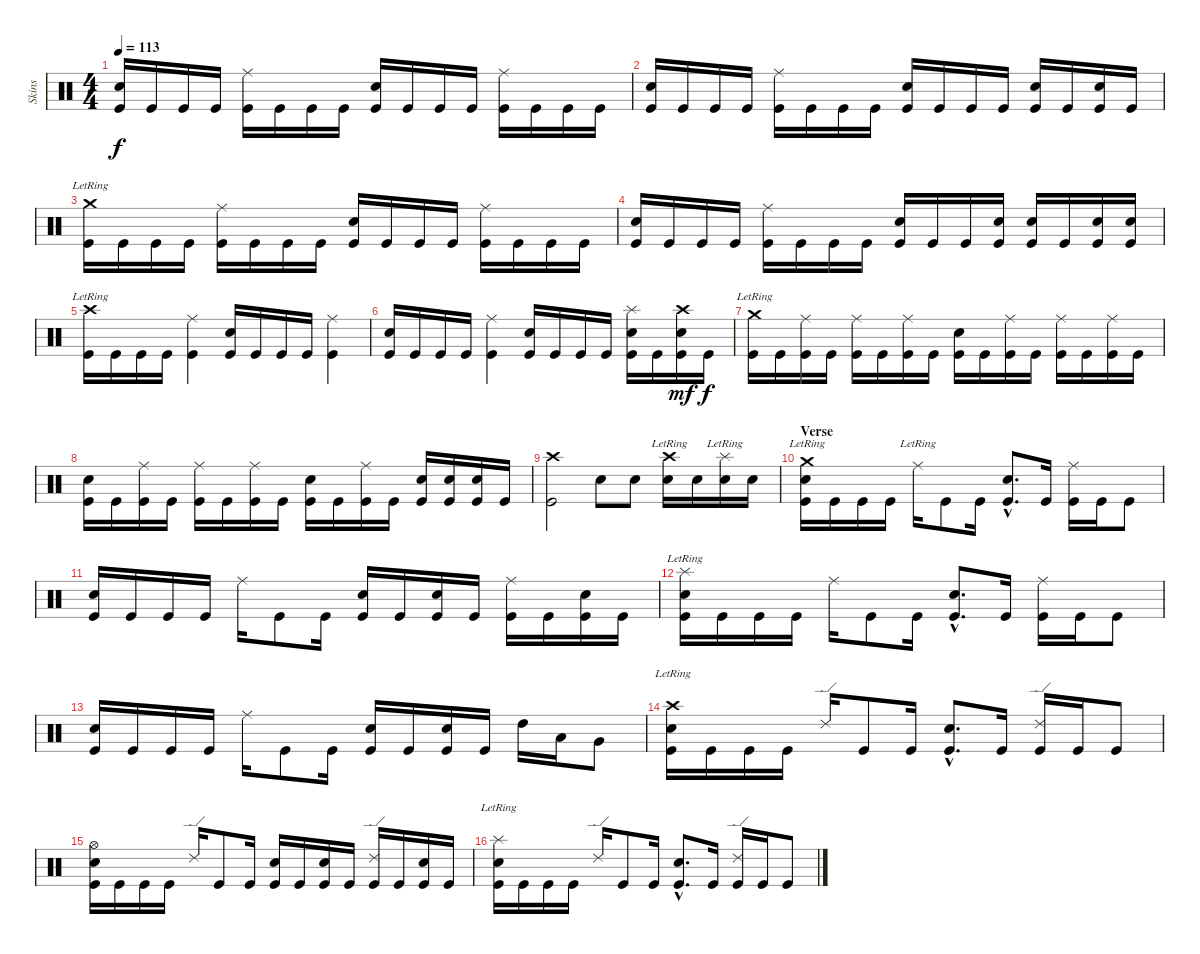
\track ("Skins" "Skins") {instrument percussion}
\staff {score}
\articulation defaults
\ts (4 4)
\tempo 113
\clef neutral
\ks c
("Electric Snare (hit)" "Kick (hit)").16{dy f} "Kick (hit)".16 "Kick (hit)".16 "Kick (hit)".16 ("Ride (middle)" "Kick (hit)").16 "Kick (hit)".16 "Kick (hit)".16 "Kick (hit)".16 ("Electric Snare (hit)" "Kick (hit)").16 "Kick (hit)".16 "Kick (hit)".16 "Kick (hit)".16 ("Ride (middle)" "Kick (hit)").16 "Kick (hit)".16 "Kick (hit)".16 "Kick (hit)".16 |
("Electric Snare (hit)" "Kick (hit)").16 "Kick (hit)".16 "Kick (hit)".16 "Kick (hit)".16 ("Ride (middle)" "Kick (hit)").16 "Kick (hit)".16 "Kick (hit)".16 "Kick (hit)".16 ("Electric Snare (hit)" "Kick (hit)").16 "Kick (hit)".16 "Kick (hit)".16 "Kick (hit)".16 ("Snare (hit) 2" "Kick (hit)").16 "Kick (hit)".16 ("Snare (hit) 2" "Kick (hit)").16 "Kick (hit)".16 |
("Crash medium (hit)"{lr} "Kick (hit)").16 "Kick (hit)".16 "Kick (hit)".16 "Kick (hit)".16 ("Ride (middle)" "Kick (hit)").16 "Kick (hit)".16 "Kick (hit)".16 "Kick (hit)".16 ("Electric Snare (hit)" "Kick (hit)").16 "Kick (hit)".16 "Kick (hit)".16 "Kick (hit)".16 ("Ride (middle)" "Kick (hit)").16 "Kick (hit)".16 "Kick (hit)".16 "Kick (hit)".16 |
("Electric Snare (hit)" "Kick (hit)").16 "Kick (hit)".16 "Kick (hit)".16 "Kick (hit)".16 ("Ride (middle)" "Kick (hit)").16 "Kick (hit)".16 "Kick (hit)".16 "Kick (hit)".16 ("Electric Snare (hit)" "Kick (hit)").16 "Kick (hit)".16 "Kick (hit)".16 ("Snare (hit) 2" "Kick (hit)").16 ("Snare (hit) 2" "Kick (hit)").16 "Kick (hit)".16 ("Snare (hit) 2" "Kick (hit)").16 ("Snare (hit) 2" "Kick (hit)").16 |
("Crash high (hit)"{lr} "Kick (hit)").16 "Kick (hit)".16 "Kick (hit)".16 "Kick (hit)".16 ("Ride (middle)" "Kick (hit)").4 ("Electric Snare (hit)" "Kick (hit)").16 "Kick (hit)".16 "Kick (hit)".16 "Kick (hit)".16 ("Ride (middle)" "Kick (hit)").4 |
("Electric Snare (hit)" "Kick (hit)").16 "Kick (hit)".16 "Kick (hit)".16 "Kick (hit)".16 ("Ride (middle)" "Kick (hit)").4 ("Electric Snare (hit)" "Kick (hit)").16 "Kick (hit)".16 "Kick (hit)".16 "Kick (hit)".16 ("Splash (hit)" "Snare (hit) 2" "Kick (hit)").16 "Kick (hit)".16 ("Crash high (hit)" "Snare (hit) 2" "Kick (hit)").16{dy mf} "Kick (hit)".16{dy f} |
("Crash medium (hit)"{lr} "Kick (hit)").16 "Kick (hit)".16 ("Ride (middle)" "Kick (hit)").16 "Kick (hit)".16 ("Ride (middle)" "Kick (hit)").16 "Kick (hit)".16 ("Ride (middle)" "Kick (hit)").16 "Kick (hit)".16 ("Electric Snare (hit)" "Kick (hit)").16 "Kick (hit)".16 ("Ride (middle)" "Kick (hit)").16 "Kick (hit)".16 ("Ride (middle)" "Kick (hit)").16 "Kick (hit)".16 ("Ride (middle)" "Kick (hit)").16 "Kick (hit)".16 |
("Electric Snare (hit)" "Kick (hit)").16 "Kick (hit)".16 ("Ride (middle)" "Kick (hit)").16 "Kick (hit)".16 ("Ride (middle)" "Kick (hit)").16 "Kick (hit)".16 ("Ride (middle)" "Kick (hit)").16 "Kick (hit)".16 ("Electric Snare (hit)" "Kick (hit)").16 "Kick (hit)".16 ("Ride (middle)" "Kick (hit)").16 "Kick (hit)".16 ("Snare (hit) 2" "Kick (hit)").16 ("Snare (hit) 2" "Kick (hit)").16 ("Snare (hit) 2" "Kick (hit)").16 "Kick (hit)".16 |
("Crash high (hit)" "Kick (hit)").2 "Electric Snare (hit)".8 "Snare (hit) 2".8 ("Crash high (hit)"{lr} "Electric Snare (hit)").16 "Electric Snare (hit)".16 ("Splash (hit)"{lr} "Snare (hit) 2").16 "Snare (hit) 2".16 |
\section ("" "Verse")
("Electric Snare (hit)" "Crash medium (hit)"{lr} "Kick (hit)").16 "Kick (hit)".16 "Kick (hit)".16 "Kick (hit)".16 "Ride (middle)"{lr}.16 "Kick (hit)".8 "Kick (hit)".16 ("Electric Snare (hit)"{hac} "Kick (hit)"{hac}).8{d} "Kick (hit)".16 ("Ride (middle)" "Kick (hit)").16 "Kick (hit)".16 "Kick (hit)".8 |
("Electric Snare (hit)" "Kick (hit)").16 "Kick (hit)".16 "Kick (hit)".16 "Kick (hit)".16 "Ride (middle)".16 "Kick (hit)".8 "Kick (hit)".16 ("Snare (hit) 2" "Kick (hit)").16 "Kick (hit)".16 ("Snare (hit) 2" "Kick (hit)").16 "Kick (hit)".16 ("Ride (middle)" "Kick (hit)").16 "Kick (hit)".16 ("Snare (hit) 2" "Kick (hit)").16 "Kick (hit)".16 |
("Splash (hit)"{lr} "Electric Snare (hit)" "Kick (hit)").16 "Kick (hit)".16 "Kick (hit)".16 "Kick (hit)".16 "Ride (middle)".16 "Kick (hit)".8 "Kick (hit)".16 ("Electric Snare (hit)"{hac} "Kick (hit)"{hac}).8{d} "Kick (hit)".16 ("Ride (middle)" "Kick (hit)").16 "Kick (hit)".16 "Kick (hit)".8 |
("Electric Snare (hit)" "Kick (hit)").16 "Kick (hit)".16 "Kick (hit)".16 "Kick (hit)".16 "Ride (middle)".16 "Kick (hit)".8 "Kick (hit)".16 ("Snare (hit) 2" "Kick (hit)").16 "Kick (hit)".16 ("Snare (hit) 2" "Kick (hit)").16 "Kick (hit)".16 "High Tom (hit)".16 "Low Tom (hit)".16 "Very Low Tom (hit)".8 |
("Crash high (hit)"{lr} "Electric Snare (hit)" "Kick (hit)").16 "Kick (hit)".16 "Kick (hit)".16 "Kick (hit)".16 "Ride (edge) 2".16 "Kick (hit)".8 "Kick (hit)".16 ("Electric Snare (hit)"{hac} "Kick (hit)"{hac}).8{d} "Kick (hit)".16 ("Ride (edge) 2" "Kick (hit)").16 "Kick (hit)".16 "Kick (hit)".8 |
("Hi-Hat (open)" "Electric Snare (hit)" "Kick (hit)").16 "Kick (hit)".16 "Kick (hit)".16 "Kick (hit)".16 "Ride (edge) 2".16 "Kick (hit)".8 "Kick (hit)".16 ("Snare (hit) 2" "Kick (hit)").16 "Kick (hit)".16 ("Snare (hit) 2" "Kick (hit)").16 "Kick (hit)".16 ("Ride (edge) 2" "Kick (hit)").16 "Kick (hit)".16 ("Snare (hit) 2" "Kick (hit)").16 "Kick (hit)".16 |
("Splash (hit)"{lr} "Electric Snare (hit)" "Kick (hit)").16 "Kick (hit)".16 "Kick (hit)".16 "Kick (hit)".16 "Ride (edge) 2".16 "Kick (hit)".8 "Kick (hit)".16 ("Electric Snare (hit)"{hac} "Kick (hit)"{hac}).8{d} "Kick (hit)".16 ("Ride (edge) 2" "Kick (hit)").16 "Kick (hit)".16 "Kick (hit)".8
